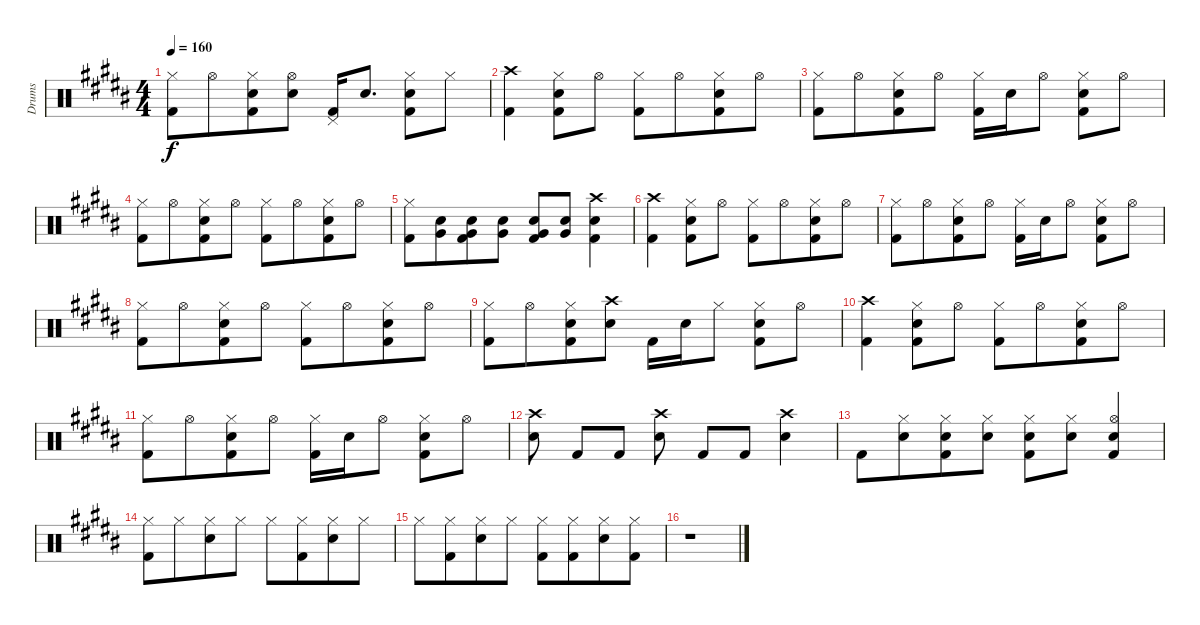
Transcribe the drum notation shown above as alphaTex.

\track ("Drums" "Drums") {instrument percussion}
\staff {score}
\articulation defaults
\ts (4 4)
\tempo 160
\clef neutral
\ks b
("Hi-Hat (closed)" "Kick (hit) 2").8{dy f} "Hi-Hat (open)".8{beam merge} ("Hi-Hat (closed)" "Snare (hit) 2" "Kick (hit) 2").8 ("Hi-Hat (open)" "Snare (hit) 2").8 ("Pedal Hi-Hat (hit)" "Kick (hit) 2").16 "Snare (hit) 2".8{d} ("Hi-Hat (closed)" "Snare (hit) 2" "Kick (hit) 2").8 "Hi-Hat (closed)".8 |
("Kick (hit) 2" "Crash high (hit)").4 ("Hi-Hat (closed)" "Snare (hit) 2" "Kick (hit) 2").8 "Hi-Hat (open)".8 ("Hi-Hat (closed)" "Kick (hit) 2").8 "Hi-Hat (open)".8{beam merge} ("Hi-Hat (closed)" "Snare (hit) 2" "Kick (hit) 2").8 "Hi-Hat (open)".8 |
("Hi-Hat (closed)" "Kick (hit) 2").8 "Hi-Hat (open)".8{beam merge} ("Hi-Hat (closed)" "Snare (hit) 2" "Kick (hit) 2").8 "Hi-Hat (open)".8 ("Hi-Hat (closed)" "Kick (hit) 2").16 "Snare (hit) 2".16 "Hi-Hat (open)".8 ("Hi-Hat (closed)" "Snare (hit) 2" "Kick (hit) 2").8 "Hi-Hat (open)".8 |
("Hi-Hat (closed)" "Kick (hit) 2").8 "Hi-Hat (open)".8{beam merge} ("Hi-Hat (closed)" "Snare (hit) 2" "Kick (hit) 2").8 "Hi-Hat (open)".8 ("Hi-Hat (closed)" "Kick (hit) 2").8 "Hi-Hat (open)".8{beam merge} ("Hi-Hat (closed)" "Snare (hit) 2" "Kick (hit) 2").8 "Hi-Hat (open)".8 |
("Hi-Hat (closed)" "Kick (hit) 2").8 ("Very Low Tom (hit)" "Snare (hit) 2").8{beam merge} ("Very Low Tom (hit)" "Snare (hit) 2" "Kick (hit) 2").8 ("Very Low Tom (hit)" "Snare (hit) 2").8 ("Very Low Tom (hit)" "Snare (hit) 2" "Kick (hit) 2").8 ("Very Low Tom (hit)" "Snare (hit) 2").8 ("Snare (hit) 2" "Kick (hit) 2" "Crash high (hit)").4 |
("Kick (hit) 2" "Crash high (hit)").4 ("Hi-Hat (closed)" "Snare (hit) 2" "Kick (hit) 2").8 "Hi-Hat (open)".8 ("Hi-Hat (closed)" "Kick (hit) 2").8 "Hi-Hat (open)".8{beam merge} ("Hi-Hat (closed)" "Snare (hit) 2" "Kick (hit) 2").8 "Hi-Hat (open)".8 |
("Hi-Hat (closed)" "Kick (hit) 2").8 "Hi-Hat (open)".8{beam merge} ("Hi-Hat (closed)" "Snare (hit) 2" "Kick (hit) 2").8 "Hi-Hat (open)".8 ("Hi-Hat (closed)" "Kick (hit) 2").16 "Snare (hit) 2".16 "Hi-Hat (open)".8 ("Hi-Hat (closed)" "Snare (hit) 2" "Kick (hit) 2").8 "Hi-Hat (open)".8 |
("Hi-Hat (closed)" "Kick (hit) 2").8 "Hi-Hat (open)".8{beam merge} ("Hi-Hat (closed)" "Snare (hit) 2" "Kick (hit) 2").8 "Hi-Hat (open)".8 ("Hi-Hat (closed)" "Kick (hit) 2").8 "Hi-Hat (open)".8{beam merge} ("Hi-Hat (closed)" "Snare (hit) 2" "Kick (hit) 2").8 "Hi-Hat (open)".8 |
("Hi-Hat (closed)" "Kick (hit) 2").8 "Hi-Hat (open)".8{beam merge} ("Hi-Hat (closed)" "Snare (hit) 2" "Kick (hit) 2").8 ("Snare (hit) 2" "Crash high (hit)").8 "Kick (hit) 2".16 "Snare (hit) 2".16 "Hi-Hat (closed)".8 ("Hi-Hat (closed)" "Snare (hit) 2" "Kick (hit) 2").8 "Hi-Hat (open)".8 |
("Kick (hit) 2" "Crash high (hit)").4 ("Hi-Hat (closed)" "Snare (hit) 2" "Kick (hit) 2").8 "Hi-Hat (open)".8 ("Hi-Hat (closed)" "Kick (hit) 2").8 "Hi-Hat (open)".8{beam merge} ("Hi-Hat (closed)" "Snare (hit) 2" "Kick (hit) 2").8 "Hi-Hat (open)".8 |
("Hi-Hat (closed)" "Kick (hit) 2").8 "Hi-Hat (open)".8{beam merge} ("Hi-Hat (closed)" "Snare (hit) 2" "Kick (hit) 2").8 "Hi-Hat (open)".8 ("Hi-Hat (closed)" "Kick (hit) 2").16 "Snare (hit) 2".16 "Hi-Hat (open)".8 ("Hi-Hat (closed)" "Snare (hit) 2" "Kick (hit) 2").8 "Hi-Hat (open)".8 |
("Snare (hit) 2" "Crash high (hit)").8{beam split} "Kick (hit) 2".8{beam merge} "Kick (hit) 2".8{beam split} ("Snare (hit) 2" "Crash high (hit)").8 "Kick (hit) 2".8 "Kick (hit) 2".8 ("Snare (hit) 2" "Crash high (hit)").4 |
"Kick (hit) 2".8 ("Hi-Hat (closed)" "Snare (hit) 2").8{beam merge} ("Hi-Hat (closed)" "Snare (hit) 2" "Kick (hit) 2").8 ("Hi-Hat (closed)" "Snare (hit) 2").8 ("Hi-Hat (closed)" "Snare (hit) 2" "Kick (hit) 2").8 ("Hi-Hat (closed)" "Snare (hit) 2").8 ("Hi-Hat (open)" "Snare (hit) 2" "Kick (hit) 2").4 |
("Hi-Hat (closed)" "Kick (hit) 2").8 "Hi-Hat (closed)".8{beam merge} ("Hi-Hat (closed)" "Snare (hit) 2").8 "Hi-Hat (closed)".8 "Hi-Hat (closed)".8 ("Hi-Hat (closed)" "Kick (hit) 2").8{beam merge} ("Hi-Hat (closed)" "Snare (hit) 2").8 "Hi-Hat (closed)".8 |
"Hi-Hat (closed)".8 ("Hi-Hat (closed)" "Kick (hit) 2").8{beam merge} ("Hi-Hat (closed)" "Snare (hit) 2").8 "Hi-Hat (closed)".8 ("Hi-Hat (closed)" "Kick (hit) 2").8 ("Hi-Hat (closed)" "Kick (hit) 2").8{beam merge} ("Hi-Hat (closed)" "Snare (hit) 2").8 ("Hi-Hat (closed)" "Kick (hit) 2").8 |
r.1
